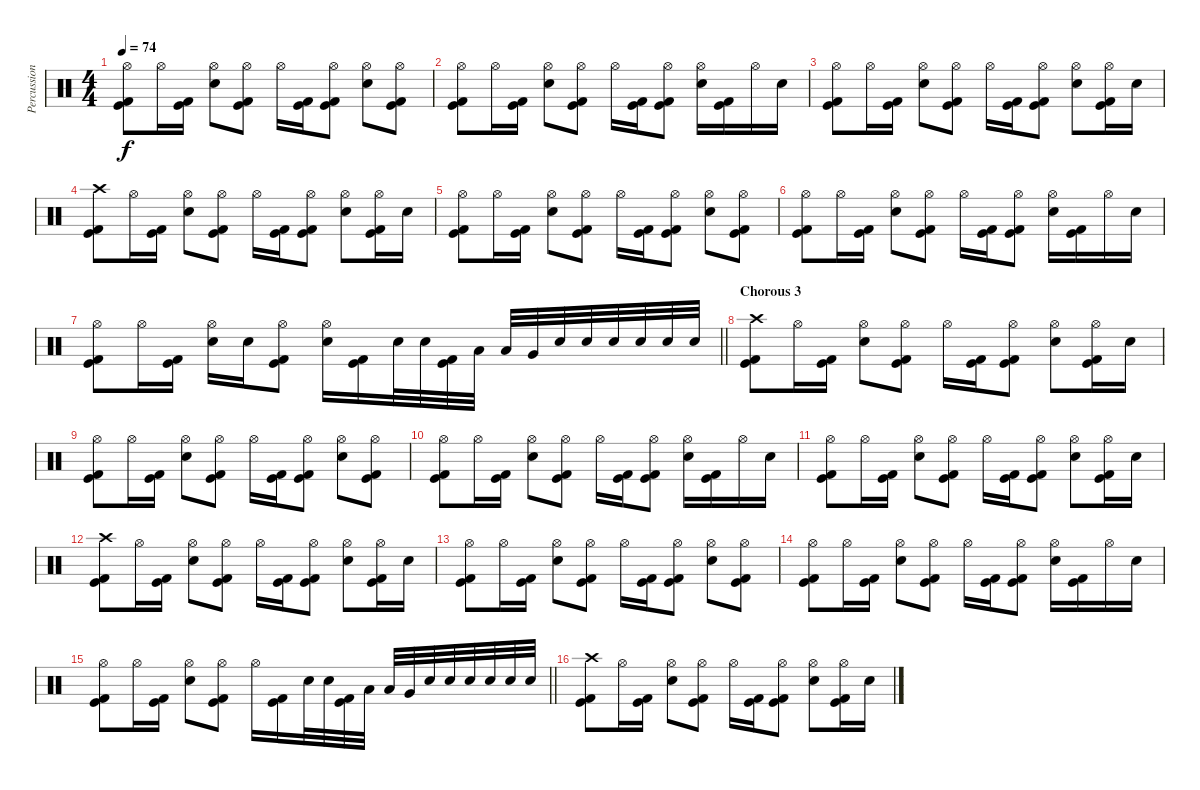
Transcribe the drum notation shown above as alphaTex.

\track ("Percussion" "Percussion") {instrument percussion}
\staff {score}
\articulation defaults
\ts (4 4)
\tempo 74
\clef neutral
\ks c
("Hi-Hat (open)" "Kick (hit)" "Kick (hit) 2").8{dy f} "Hi-Hat (open)".16 ("Kick (hit)" "Kick (hit) 2").16 ("Hi-Hat (open)" "Electric Snare (hit)").8 ("Hi-Hat (open)" "Kick (hit)" "Kick (hit) 2").8 "Hi-Hat (open)".16 ("Kick (hit)" "Kick (hit) 2").16 ("Hi-Hat (open)" "Kick (hit)" "Kick (hit) 2").8 ("Hi-Hat (open)" "Electric Snare (hit)").8 ("Hi-Hat (open)" "Kick (hit)" "Kick (hit) 2").8 |
("Hi-Hat (open)" "Kick (hit)" "Kick (hit) 2").8 "Hi-Hat (open)".16 ("Kick (hit)" "Kick (hit) 2").16 ("Hi-Hat (open)" "Electric Snare (hit)").8 ("Hi-Hat (open)" "Kick (hit)" "Kick (hit) 2").8 "Hi-Hat (open)".16 ("Kick (hit)" "Kick (hit) 2").16 ("Hi-Hat (open)" "Kick (hit)" "Kick (hit) 2").8 ("Hi-Hat (open)" "Electric Snare (hit)").16 ("Kick (hit)" "Kick (hit) 2").16 "Hi-Hat (open)".16 "Electric Snare (hit)".16 |
("Hi-Hat (open)" "Kick (hit)" "Kick (hit) 2").8 "Hi-Hat (open)".16 ("Kick (hit)" "Kick (hit) 2").16 ("Hi-Hat (open)" "Electric Snare (hit)").8 ("Hi-Hat (open)" "Kick (hit)" "Kick (hit) 2").8 "Hi-Hat (open)".16 ("Kick (hit)" "Kick (hit) 2").16 ("Hi-Hat (open)" "Kick (hit)" "Kick (hit) 2").8 ("Hi-Hat (open)" "Electric Snare (hit)").8 ("Hi-Hat (open)" "Kick (hit)" "Kick (hit) 2").16 "Electric Snare (hit)".16 |
("Crash high (hit)" "Kick (hit)" "Kick (hit) 2").8 "Hi-Hat (open)".16 ("Kick (hit)" "Kick (hit) 2").16 ("Hi-Hat (open)" "Electric Snare (hit)").8 ("Hi-Hat (open)" "Kick (hit)" "Kick (hit) 2").8 "Hi-Hat (open)".16 ("Kick (hit)" "Kick (hit) 2").16 ("Hi-Hat (open)" "Kick (hit)" "Kick (hit) 2").8 ("Hi-Hat (open)" "Electric Snare (hit)").8 ("Hi-Hat (open)" "Kick (hit)" "Kick (hit) 2").16 "Electric Snare (hit)".16 |
("Hi-Hat (open)" "Kick (hit)" "Kick (hit) 2").8 "Hi-Hat (open)".16 ("Kick (hit)" "Kick (hit) 2").16 ("Hi-Hat (open)" "Electric Snare (hit)").8 ("Hi-Hat (open)" "Kick (hit)" "Kick (hit) 2").8 "Hi-Hat (open)".16 ("Kick (hit)" "Kick (hit) 2").16 ("Hi-Hat (open)" "Kick (hit)" "Kick (hit) 2").8 ("Hi-Hat (open)" "Electric Snare (hit)").8 ("Hi-Hat (open)" "Kick (hit)" "Kick (hit) 2").8 |
("Hi-Hat (open)" "Kick (hit)" "Kick (hit) 2").8 "Hi-Hat (open)".16 ("Kick (hit)" "Kick (hit) 2").16 ("Hi-Hat (open)" "Electric Snare (hit)").8 ("Hi-Hat (open)" "Kick (hit)" "Kick (hit) 2").8 "Hi-Hat (open)".16 ("Kick (hit)" "Kick (hit) 2").16 ("Hi-Hat (open)" "Kick (hit)" "Kick (hit) 2").8 ("Hi-Hat (open)" "Electric Snare (hit)").16 ("Kick (hit)" "Kick (hit) 2").16 "Hi-Hat (open)".16 "Electric Snare (hit)".16 |
\barLineRight lightlight
("Hi-Hat (open)" "Kick (hit)" "Kick (hit) 2").8 "Hi-Hat (open)".16 ("Kick (hit)" "Kick (hit) 2").16 ("Hi-Hat (open)" "Electric Snare (hit)").16 "Electric Snare (hit)".16 ("Hi-Hat (open)" "Kick (hit)" "Kick (hit) 2").8 ("Hi-Hat (open)" "Electric Snare (hit)").16 ("Kick (hit)" "Kick (hit) 2").16 "Electric Snare (hit)".32 "Electric Snare (hit)".32 ("Kick (hit)" "Kick (hit) 2").32 "Low Tom (hit)".32 "Low Tom (hit)".32 "Very Low Tom (hit)".32 "Electric Snare (hit)".32 "Electric Snare (hit)".32 "Electric Snare (hit)".32 "Electric Snare (hit)".32 "Electric Snare (hit)".32 "Electric Snare (hit)".32 |
\section ("" "Chorous 3")
("Crash high (hit)" "Kick (hit)" "Kick (hit) 2").8 "Hi-Hat (open)".16 ("Kick (hit)" "Kick (hit) 2").16 ("Hi-Hat (open)" "Electric Snare (hit)").8 ("Hi-Hat (open)" "Kick (hit)" "Kick (hit) 2").8 "Hi-Hat (open)".16 ("Kick (hit)" "Kick (hit) 2").16 ("Hi-Hat (open)" "Kick (hit)" "Kick (hit) 2").8 ("Hi-Hat (open)" "Electric Snare (hit)").8 ("Hi-Hat (open)" "Kick (hit)" "Kick (hit) 2").16 "Electric Snare (hit)".16 |
("Hi-Hat (open)" "Kick (hit)" "Kick (hit) 2").8 "Hi-Hat (open)".16 ("Kick (hit)" "Kick (hit) 2").16 ("Hi-Hat (open)" "Electric Snare (hit)").8 ("Hi-Hat (open)" "Kick (hit)" "Kick (hit) 2").8 "Hi-Hat (open)".16 ("Kick (hit)" "Kick (hit) 2").16 ("Hi-Hat (open)" "Kick (hit)" "Kick (hit) 2").8 ("Hi-Hat (open)" "Electric Snare (hit)").8 ("Hi-Hat (open)" "Kick (hit)" "Kick (hit) 2").8 |
("Hi-Hat (open)" "Kick (hit)" "Kick (hit) 2").8 "Hi-Hat (open)".16 ("Kick (hit)" "Kick (hit) 2").16 ("Hi-Hat (open)" "Electric Snare (hit)").8 ("Hi-Hat (open)" "Kick (hit)" "Kick (hit) 2").8 "Hi-Hat (open)".16 ("Kick (hit)" "Kick (hit) 2").16 ("Hi-Hat (open)" "Kick (hit)" "Kick (hit) 2").8 ("Hi-Hat (open)" "Electric Snare (hit)").16 ("Kick (hit)" "Kick (hit) 2").16 "Hi-Hat (open)".16 "Electric Snare (hit)".16 |
("Hi-Hat (open)" "Kick (hit)" "Kick (hit) 2").8 "Hi-Hat (open)".16 ("Kick (hit)" "Kick (hit) 2").16 ("Hi-Hat (open)" "Electric Snare (hit)").8 ("Hi-Hat (open)" "Kick (hit)" "Kick (hit) 2").8 "Hi-Hat (open)".16 ("Kick (hit)" "Kick (hit) 2").16 ("Hi-Hat (open)" "Kick (hit)" "Kick (hit) 2").8 ("Hi-Hat (open)" "Electric Snare (hit)").8 ("Hi-Hat (open)" "Kick (hit)" "Kick (hit) 2").16 "Electric Snare (hit)".16 |
("Crash high (hit)" "Kick (hit)" "Kick (hit) 2").8 "Hi-Hat (open)".16 ("Kick (hit)" "Kick (hit) 2").16 ("Hi-Hat (open)" "Electric Snare (hit)").8 ("Hi-Hat (open)" "Kick (hit)" "Kick (hit) 2").8 "Hi-Hat (open)".16 ("Kick (hit)" "Kick (hit) 2").16 ("Hi-Hat (open)" "Kick (hit)" "Kick (hit) 2").8 ("Hi-Hat (open)" "Electric Snare (hit)").8 ("Hi-Hat (open)" "Kick (hit)" "Kick (hit) 2").16 "Electric Snare (hit)".16 |
("Hi-Hat (open)" "Kick (hit)" "Kick (hit) 2").8 "Hi-Hat (open)".16 ("Kick (hit)" "Kick (hit) 2").16 ("Hi-Hat (open)" "Electric Snare (hit)").8 ("Hi-Hat (open)" "Kick (hit)" "Kick (hit) 2").8 "Hi-Hat (open)".16 ("Kick (hit)" "Kick (hit) 2").16 ("Hi-Hat (open)" "Kick (hit)" "Kick (hit) 2").8 ("Hi-Hat (open)" "Electric Snare (hit)").8 ("Hi-Hat (open)" "Kick (hit)" "Kick (hit) 2").8 |
("Hi-Hat (open)" "Kick (hit)" "Kick (hit) 2").8 "Hi-Hat (open)".16 ("Kick (hit)" "Kick (hit) 2").16 ("Hi-Hat (open)" "Electric Snare (hit)").8 ("Hi-Hat (open)" "Kick (hit)" "Kick (hit) 2").8 "Hi-Hat (open)".16 ("Kick (hit)" "Kick (hit) 2").16 ("Hi-Hat (open)" "Kick (hit)" "Kick (hit) 2").8 ("Hi-Hat (open)" "Electric Snare (hit)").16 ("Kick (hit)" "Kick (hit) 2").16 "Hi-Hat (open)".16 "Electric Snare (hit)".16 |
\barLineRight lightlight
("Hi-Hat (open)" "Kick (hit)" "Kick (hit) 2").8 "Hi-Hat (open)".16 ("Kick (hit)" "Kick (hit) 2").16 ("Hi-Hat (open)" "Electric Snare (hit)").8 ("Hi-Hat (open)" "Kick (hit)" "Kick (hit) 2").8 "Hi-Hat (open)".16 ("Kick (hit)" "Kick (hit) 2").16 "Electric Snare (hit)".32 "Electric Snare (hit)".32 ("Kick (hit)" "Kick (hit) 2").32 "Low Tom (hit)".32 "Low Tom (hit)".32 "Very Low Tom (hit)".32 "Electric Snare (hit)".32 "Electric Snare (hit)".32 "Electric Snare (hit)".32 "Electric Snare (hit)".32 "Electric Snare (hit)".32 "Electric Snare (hit)".32 |
\section ("" "")
("Crash high (hit)" "Kick (hit)" "Kick (hit) 2").8 "Hi-Hat (open)".16 ("Kick (hit)" "Kick (hit) 2").16 ("Hi-Hat (open)" "Electric Snare (hit)").8 ("Hi-Hat (open)" "Kick (hit)" "Kick (hit) 2").8 "Hi-Hat (open)".16 ("Kick (hit)" "Kick (hit) 2").16 ("Hi-Hat (open)" "Kick (hit)" "Kick (hit) 2").8 ("Hi-Hat (open)" "Electric Snare (hit)").8 ("Hi-Hat (open)" "Kick (hit)" "Kick (hit) 2").16 "Electric Snare (hit)".16
